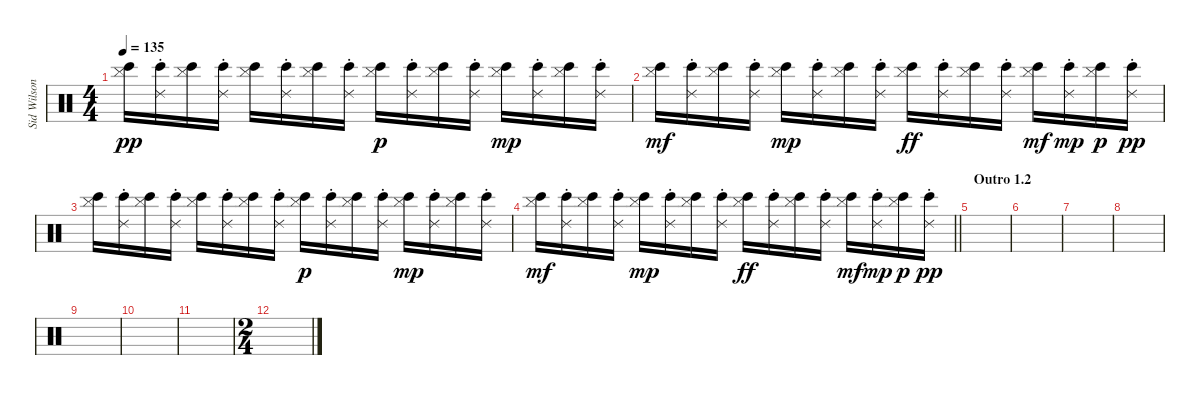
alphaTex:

\track ("Sid Wilson" "Sid Wilson") {instrument percussion}
\staff {score}
\articulation defaults
\ts (4 4)
\tempo 135
\clef neutral
\ks c
("Bongo High (hit)" "Cymbal (hit)").16{dy pp} ("Bongo High (hit)" "Ride (choke) 2").16 ("Bongo High (hit)" "Cymbal (hit)").16 ("Bongo High (hit)" "Ride (choke) 2").16 ("Bongo High (hit)" "Cymbal (hit)").16 ("Bongo High (hit)" "Ride (choke) 2").16 ("Bongo High (hit)" "Cymbal (hit)").16 ("Bongo High (hit)" "Ride (choke) 2").16 ("Bongo High (hit)" "Cymbal (hit)").16{dy p} ("Bongo High (hit)" "Ride (choke) 2").16 ("Bongo High (hit)" "Cymbal (hit)").16 ("Bongo High (hit)" "Ride (choke) 2").16 ("Bongo High (hit)" "Cymbal (hit)").16{dy mp} ("Bongo High (hit)" "Ride (choke) 2").16 ("Bongo High (hit)" "Cymbal (hit)").16 ("Bongo High (hit)" "Ride (choke) 2").16 |
("Bongo High (hit)" "Cymbal (hit)").16{dy mf} ("Bongo High (hit)" "Ride (choke) 2").16 ("Bongo High (hit)" "Cymbal (hit)").16 ("Bongo High (hit)" "Ride (choke) 2").16 ("Bongo High (hit)" "Cymbal (hit)").16{dy mp} ("Bongo High (hit)" "Ride (choke) 2").16 ("Bongo High (hit)" "Cymbal (hit)").16 ("Bongo High (hit)" "Ride (choke) 2").16 ("Bongo High (hit)" "Cymbal (hit)").16{dy ff} ("Bongo High (hit)" "Ride (choke) 2").16 ("Bongo High (hit)" "Cymbal (hit)").16 ("Bongo High (hit)" "Ride (choke) 2").16 ("Bongo High (hit)" "Cymbal (hit)").16{dy mf} ("Bongo High (hit)" "Ride (choke) 2").16{dy mp} ("Bongo High (hit)" "Cymbal (hit)").16{dy p} ("Bongo High (hit)" "Ride (choke) 2").16{dy pp} |
("Bongo High (hit)" "Cymbal (hit)").16 ("Bongo High (hit)" "Ride (choke) 2").16 ("Bongo High (hit)" "Cymbal (hit)").16 ("Bongo High (hit)" "Ride (choke) 2").16 ("Bongo High (hit)" "Cymbal (hit)").16 ("Bongo High (hit)" "Ride (choke) 2").16 ("Bongo High (hit)" "Cymbal (hit)").16 ("Bongo High (hit)" "Ride (choke) 2").16 ("Bongo High (hit)" "Cymbal (hit)").16{dy p} ("Bongo High (hit)" "Ride (choke) 2").16 ("Bongo High (hit)" "Cymbal (hit)").16 ("Bongo High (hit)" "Ride (choke) 2").16 ("Bongo High (hit)" "Cymbal (hit)").16{dy mp} ("Bongo High (hit)" "Ride (choke) 2").16 ("Bongo High (hit)" "Cymbal (hit)").16 ("Bongo High (hit)" "Ride (choke) 2").16 |
\barLineRight lightlight
("Bongo High (hit)" "Cymbal (hit)").16{dy mf} ("Bongo High (hit)" "Ride (choke) 2").16 ("Bongo High (hit)" "Cymbal (hit)").16 ("Bongo High (hit)" "Ride (choke) 2").16 ("Bongo High (hit)" "Cymbal (hit)").16{dy mp} ("Bongo High (hit)" "Ride (choke) 2").16 ("Bongo High (hit)" "Cymbal (hit)").16 ("Bongo High (hit)" "Ride (choke) 2").16 ("Bongo High (hit)" "Cymbal (hit)").16{dy ff} ("Bongo High (hit)" "Ride (choke) 2").16 ("Bongo High (hit)" "Cymbal (hit)").16 ("Bongo High (hit)" "Ride (choke) 2").16 ("Bongo High (hit)" "Cymbal (hit)").16{dy mf} ("Bongo High (hit)" "Ride (choke) 2").16{dy mp} ("Bongo High (hit)" "Cymbal (hit)").16{dy p} ("Bongo High (hit)" "Ride (choke) 2").16{dy pp} |
\section ("" "Outro 1.2")
|
|
|
|
|
|
|
\ts (2 4)
